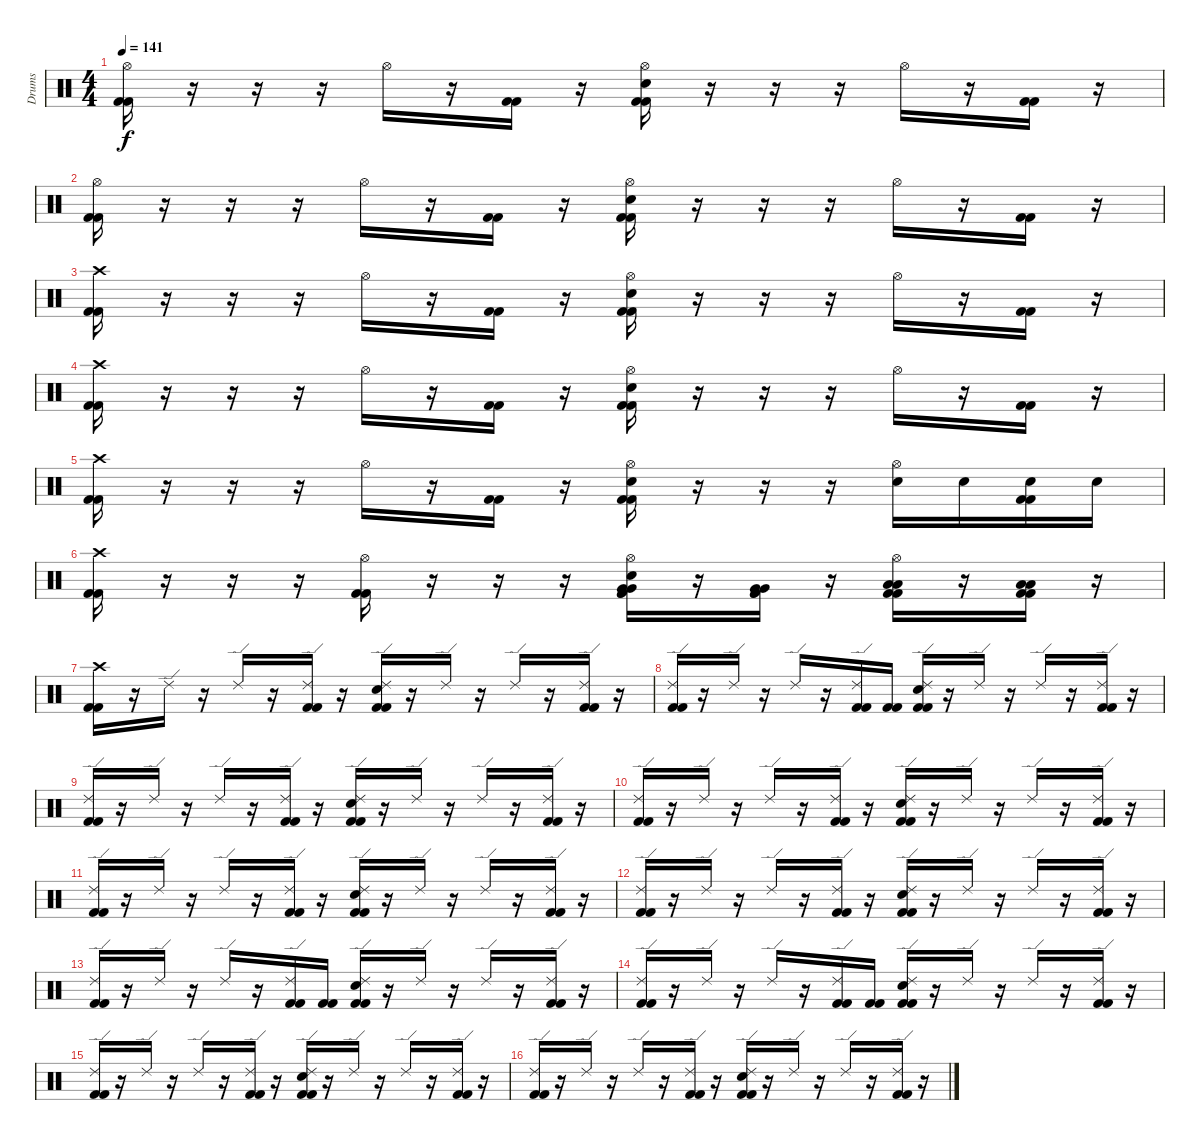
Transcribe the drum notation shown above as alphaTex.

\track ("Drums" "Drums") {instrument percussion}
\staff {score}
\articulation defaults
\ts (4 4)
\tempo 141
\clef neutral
\ks c
("Hi-Hat (open)" "Kick (hit) 2" "Kick (hit) 2").16{dy f} r.16 r.16 r.16 "Hi-Hat (open)".16 r.16 ("Kick (hit) 2" "Kick (hit) 2").16 r.16 ("Hi-Hat (open)" "Snare (hit) 2" "Kick (hit) 2" "Kick (hit) 2").16 r.16 r.16 r.16 "Hi-Hat (open)".16 r.16 ("Kick (hit) 2" "Kick (hit) 2").16 r.16 |
("Hi-Hat (open)" "Kick (hit) 2" "Kick (hit) 2").16 r.16 r.16 r.16 "Hi-Hat (open)".16 r.16 ("Kick (hit) 2" "Kick (hit) 2").16 r.16 ("Hi-Hat (open)" "Snare (hit) 2" "Kick (hit) 2" "Kick (hit) 2").16 r.16 r.16 r.16 "Hi-Hat (open)".16 r.16 ("Kick (hit) 2" "Kick (hit) 2").16 r.16 |
("Crash high (hit)" "Kick (hit) 2" "Kick (hit) 2").16 r.16 r.16 r.16 "Hi-Hat (open)".16 r.16 ("Kick (hit) 2" "Kick (hit) 2").16 r.16 ("Hi-Hat (open)" "Snare (hit) 2" "Kick (hit) 2" "Kick (hit) 2").16 r.16 r.16 r.16 "Hi-Hat (open)".16 r.16 ("Kick (hit) 2" "Kick (hit) 2").16 r.16 |
("Crash high (hit)" "Kick (hit) 2" "Kick (hit) 2").16 r.16 r.16 r.16 "Hi-Hat (open)".16 r.16 ("Kick (hit) 2" "Kick (hit) 2").16 r.16 ("Hi-Hat (open)" "Snare (hit) 2" "Kick (hit) 2" "Kick (hit) 2").16 r.16 r.16 r.16 "Hi-Hat (open)".16 r.16 ("Kick (hit) 2" "Kick (hit) 2").16 r.16 |
("Crash high (hit)" "Kick (hit) 2" "Kick (hit) 2").16 r.16 r.16 r.16 "Hi-Hat (open)".16 r.16 ("Kick (hit) 2" "Kick (hit) 2").16 r.16 ("Hi-Hat (open)" "Snare (hit) 2" "Kick (hit) 2" "Kick (hit) 2").16 r.16 r.16 r.16 ("Hi-Hat (open)" "Snare (hit) 2").16 "Snare (hit) 2".16 ("Snare (hit) 2" "Kick (hit) 2" "Kick (hit) 2").16 "Snare (hit) 2".16 |
("Crash high (hit)" "Kick (hit) 2" "Kick (hit) 2").16 r.16 r.16 r.16 ("Hi-Hat (open)" "Kick (hit) 2" "Kick (hit) 2").16 r.16 r.16 r.16 ("Hi-Hat (open)" "Kick (hit) 2" "Snare (hit) 2" "Very Low Tom (hit)" "Very Low Tom (hit)" "Kick (hit) 2").16 r.16 ("Kick (hit) 2" "Very Low Tom (hit)" "Very Low Tom (hit)" "Kick (hit) 2").16 r.16 ("Hi-Hat (open)" "Low Floor Tom (hit)" "Low Floor Tom (hit)" "Kick (hit) 2" "Kick (hit) 2").16 r.16 ("Low Floor Tom (hit)" "Low Floor Tom (hit)" "Kick (hit) 2" "Kick (hit) 2").16 r.16 |
("Crash high (hit)" "Kick (hit) 2" "Kick (hit) 2").16 r.16 "Ride (edge) 2".16 r.16 "Ride (edge) 2".16 r.16 ("Ride (edge) 2" "Kick (hit) 2" "Kick (hit) 2").16 r.16 ("Ride (edge) 2" "Snare (hit) 2" "Kick (hit) 2" "Kick (hit) 2").16 r.16 "Ride (edge) 2".16 r.16 "Ride (edge) 2".16 r.16 ("Ride (edge) 2" "Kick (hit) 2" "Kick (hit) 2").16 r.16 |
("Ride (edge) 2" "Kick (hit) 2" "Kick (hit) 2").16 r.16 "Ride (edge) 2".16 r.16 "Ride (edge) 2".16 r.16 ("Ride (edge) 2" "Kick (hit) 2" "Kick (hit) 2").16 ("Kick (hit) 2" "Kick (hit) 2").16 ("Ride (edge) 2" "Snare (hit) 2" "Kick (hit) 2" "Kick (hit) 2").16 r.16 "Ride (edge) 2".16 r.16 "Ride (edge) 2".16 r.16 ("Ride (edge) 2" "Kick (hit) 2" "Kick (hit) 2").16 r.16 |
("Ride (edge) 2" "Kick (hit) 2" "Kick (hit) 2").16 r.16 "Ride (edge) 2".16 r.16 "Ride (edge) 2".16 r.16 ("Ride (edge) 2" "Kick (hit) 2" "Kick (hit) 2").16 r.16 ("Ride (edge) 2" "Snare (hit) 2" "Kick (hit) 2" "Kick (hit) 2").16 r.16 "Ride (edge) 2".16 r.16 "Ride (edge) 2".16 r.16 ("Ride (edge) 2" "Kick (hit) 2" "Kick (hit) 2").16 r.16 |
("Ride (edge) 2" "Kick (hit) 2" "Kick (hit) 2").16 r.16 "Ride (edge) 2".16 r.16 "Ride (edge) 2".16 r.16 ("Ride (edge) 2" "Kick (hit) 2" "Kick (hit) 2").16 r.16 ("Ride (edge) 2" "Snare (hit) 2" "Kick (hit) 2" "Kick (hit) 2").16 r.16 "Ride (edge) 2".16 r.16 "Ride (edge) 2".16 r.16 ("Ride (edge) 2" "Kick (hit) 2" "Kick (hit) 2").16 r.16 |
("Ride (edge) 2" "Kick (hit) 2" "Kick (hit) 2").16 r.16 "Ride (edge) 2".16 r.16 "Ride (edge) 2".16 r.16 ("Ride (edge) 2" "Kick (hit) 2" "Kick (hit) 2").16 r.16 ("Ride (edge) 2" "Snare (hit) 2" "Kick (hit) 2" "Kick (hit) 2").16 r.16 "Ride (edge) 2".16 r.16 "Ride (edge) 2".16 r.16 ("Ride (edge) 2" "Kick (hit) 2" "Kick (hit) 2").16 r.16 |
("Ride (edge) 2" "Kick (hit) 2" "Kick (hit) 2").16 r.16 "Ride (edge) 2".16 r.16 "Ride (edge) 2".16 r.16 ("Ride (edge) 2" "Kick (hit) 2" "Kick (hit) 2").16 r.16 ("Ride (edge) 2" "Snare (hit) 2" "Kick (hit) 2" "Kick (hit) 2").16 r.16 "Ride (edge) 2".16 r.16 "Ride (edge) 2".16 r.16 ("Ride (edge) 2" "Kick (hit) 2" "Kick (hit) 2").16 r.16 |
("Ride (edge) 2" "Kick (hit) 2" "Kick (hit) 2").16 r.16 "Ride (edge) 2".16 r.16 "Ride (edge) 2".16 r.16 ("Ride (edge) 2" "Kick (hit) 2" "Kick (hit) 2").16 ("Kick (hit) 2" "Kick (hit) 2").16 ("Ride (edge) 2" "Snare (hit) 2" "Kick (hit) 2" "Kick (hit) 2").16 r.16 "Ride (edge) 2".16 r.16 "Ride (edge) 2".16 r.16 ("Ride (edge) 2" "Kick (hit) 2" "Kick (hit) 2").16 r.16 |
("Ride (edge) 2" "Kick (hit) 2" "Kick (hit) 2").16 r.16 "Ride (edge) 2".16 r.16 "Ride (edge) 2".16 r.16 ("Ride (edge) 2" "Kick (hit) 2" "Kick (hit) 2").16 ("Kick (hit) 2" "Kick (hit) 2").16 ("Ride (edge) 2" "Snare (hit) 2" "Kick (hit) 2" "Kick (hit) 2").16 r.16 "Ride (edge) 2".16 r.16 "Ride (edge) 2".16 r.16 ("Ride (edge) 2" "Kick (hit) 2" "Kick (hit) 2").16 r.16 |
("Ride (edge) 2" "Kick (hit) 2" "Kick (hit) 2").16 r.16 "Ride (edge) 2".16 r.16 "Ride (edge) 2".16 r.16 ("Ride (edge) 2" "Kick (hit) 2" "Kick (hit) 2").16 r.16 ("Ride (edge) 2" "Snare (hit) 2" "Kick (hit) 2" "Kick (hit) 2").16 r.16 "Ride (edge) 2".16 r.16 "Ride (edge) 2".16 r.16 ("Ride (edge) 2" "Kick (hit) 2" "Kick (hit) 2").16 r.16 |
("Ride (edge) 2" "Kick (hit) 2" "Kick (hit) 2").16 r.16 "Ride (edge) 2".16 r.16 "Ride (edge) 2".16 r.16 ("Ride (edge) 2" "Kick (hit) 2" "Kick (hit) 2").16 r.16 ("Ride (edge) 2" "Snare (hit) 2" "Kick (hit) 2" "Kick (hit) 2").16 r.16 "Ride (edge) 2".16 r.16 "Ride (edge) 2".16 r.16 ("Ride (edge) 2" "Kick (hit) 2" "Kick (hit) 2").16 r.16
